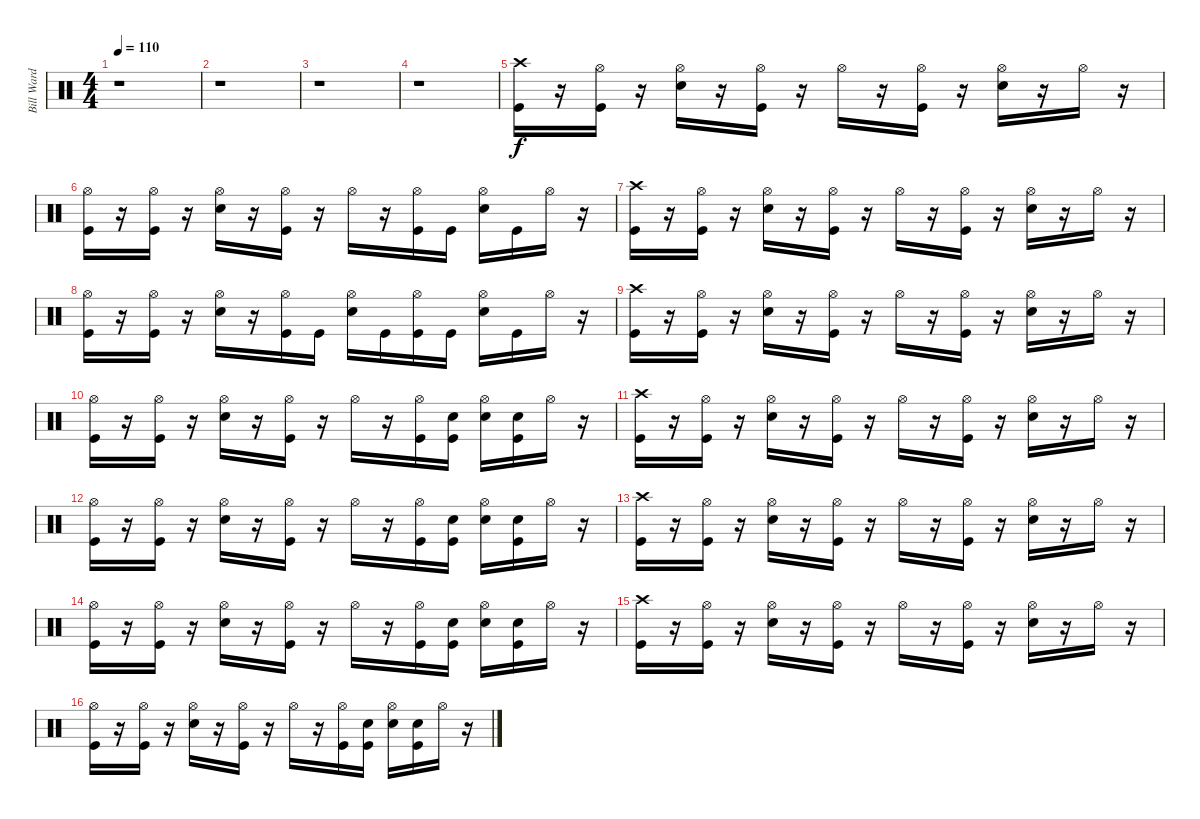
\track ("Bill Ward" "Bill Ward") {instrument percussion}
\staff {score}
\articulation defaults
\ts (4 4)
\tempo 110
\clef neutral
\ks c
r.1{dy f} |
r.1 |
r.1 |
r.1 |
("Crash high (hit)" "Kick (hit)").16 r.16 ("Kick (hit)" "Hi-Hat (open)").16 r.16 ("Snare (hit) 2" "Hi-Hat (open)").16 r.16 ("Kick (hit)" "Hi-Hat (open)").16 r.16 "Hi-Hat (open)".16 r.16 ("Kick (hit)" "Hi-Hat (open)").16 r.16 ("Hi-Hat (open)" "Snare (hit) 2").16 r.16 "Hi-Hat (open)".16 r.16 |
("Kick (hit)" "Hi-Hat (open)").16 r.16 ("Kick (hit)" "Hi-Hat (open)").16 r.16 ("Snare (hit) 2" "Hi-Hat (open)").16 r.16 ("Kick (hit)" "Hi-Hat (open)").16 r.16 "Hi-Hat (open)".16 r.16 ("Kick (hit)" "Hi-Hat (open)").16 "Kick (hit)".16 ("Hi-Hat (open)" "Snare (hit) 2").16 "Kick (hit)".16 "Hi-Hat (open)".16 r.16 |
("Kick (hit)" "Crash high (hit)").16 r.16 ("Kick (hit)" "Hi-Hat (open)").16 r.16 ("Snare (hit) 2" "Hi-Hat (open)").16 r.16 ("Kick (hit)" "Hi-Hat (open)").16 r.16 "Hi-Hat (open)".16 r.16 ("Kick (hit)" "Hi-Hat (open)").16 r.16 ("Hi-Hat (open)" "Snare (hit) 2").16 r.16 "Hi-Hat (open)".16 r.16 |
("Kick (hit)" "Hi-Hat (open)").16 r.16 ("Kick (hit)" "Hi-Hat (open)").16 r.16 ("Snare (hit) 2" "Hi-Hat (open)").16 r.16 ("Kick (hit)" "Hi-Hat (open)").16 "Kick (hit)".16 ("Hi-Hat (open)" "Snare (hit) 2").16 "Kick (hit)".16 ("Kick (hit)" "Hi-Hat (open)").16 "Kick (hit)".16 ("Hi-Hat (open)" "Snare (hit) 2").16 "Kick (hit)".16 "Hi-Hat (open)".16 r.16 |
("Crash high (hit)" "Kick (hit)").16 r.16 ("Kick (hit)" "Hi-Hat (open)").16 r.16 ("Snare (hit) 2" "Hi-Hat (open)").16 r.16 ("Kick (hit)" "Hi-Hat (open)").16 r.16 "Hi-Hat (open)".16 r.16 ("Kick (hit)" "Hi-Hat (open)").16 r.16 ("Snare (hit) 2" "Hi-Hat (open)").16 r.16 "Hi-Hat (open)".16 r.16 |
("Kick (hit)" "Hi-Hat (open)").16 r.16 ("Kick (hit)" "Hi-Hat (open)").16 r.16 ("Snare (hit) 2" "Hi-Hat (open)").16 r.16 ("Kick (hit)" "Hi-Hat (open)").16 r.16 "Hi-Hat (open)".16 r.16 ("Kick (hit)" "Hi-Hat (open)").16 ("Snare (hit)" "Kick (hit)").16 ("Snare (hit) 2" "Hi-Hat (open)").16 ("Snare (hit)" "Kick (hit)").16 "Hi-Hat (open)".16 r.16 |
("Kick (hit)" "Crash high (hit)").16 r.16 ("Kick (hit)" "Hi-Hat (open)").16 r.16 ("Snare (hit) 2" "Hi-Hat (open)").16 r.16 ("Kick (hit)" "Hi-Hat (open)").16 r.16 "Hi-Hat (open)".16 r.16 ("Kick (hit)" "Hi-Hat (open)").16 r.16 ("Snare (hit) 2" "Hi-Hat (open)").16 r.16 "Hi-Hat (open)".16 r.16 |
("Kick (hit)" "Hi-Hat (open)").16 r.16 ("Kick (hit)" "Hi-Hat (open)").16 r.16 ("Snare (hit) 2" "Hi-Hat (open)").16 r.16 ("Kick (hit)" "Hi-Hat (open)").16 r.16 "Hi-Hat (open)".16 r.16 ("Kick (hit)" "Hi-Hat (open)").16 ("Snare (hit)" "Kick (hit)").16 ("Snare (hit) 2" "Hi-Hat (open)").16 ("Snare (hit)" "Kick (hit)").16 "Hi-Hat (open)".16 r.16 |
("Crash high (hit)" "Kick (hit)").16 r.16 ("Kick (hit)" "Hi-Hat (open)").16 r.16 ("Snare (hit) 2" "Hi-Hat (open)").16 r.16 ("Kick (hit)" "Hi-Hat (open)").16 r.16 "Hi-Hat (open)".16 r.16 ("Kick (hit)" "Hi-Hat (open)").16 r.16 ("Snare (hit) 2" "Hi-Hat (open)").16 r.16 "Hi-Hat (open)".16 r.16 |
("Kick (hit)" "Hi-Hat (open)").16 r.16 ("Kick (hit)" "Hi-Hat (open)").16 r.16 ("Snare (hit) 2" "Hi-Hat (open)").16 r.16 ("Kick (hit)" "Hi-Hat (open)").16 r.16 "Hi-Hat (open)".16 r.16 ("Kick (hit)" "Hi-Hat (open)").16 ("Snare (hit)" "Kick (hit)").16 ("Snare (hit) 2" "Hi-Hat (open)").16 ("Snare (hit)" "Kick (hit)").16 "Hi-Hat (open)".16 r.16 |
("Kick (hit)" "Crash high (hit)").16 r.16 ("Kick (hit)" "Hi-Hat (open)").16 r.16 ("Snare (hit) 2" "Hi-Hat (open)").16 r.16 ("Kick (hit)" "Hi-Hat (open)").16 r.16 "Hi-Hat (open)".16 r.16 ("Kick (hit)" "Hi-Hat (open)").16 r.16 ("Snare (hit) 2" "Hi-Hat (open)").16 r.16 "Hi-Hat (open)".16 r.16 |
("Kick (hit)" "Hi-Hat (open)").16 r.16 ("Kick (hit)" "Hi-Hat (open)").16 r.16 ("Snare (hit) 2" "Hi-Hat (open)").16 r.16 ("Kick (hit)" "Hi-Hat (open)").16 r.16 "Hi-Hat (open)".16 r.16 ("Kick (hit)" "Hi-Hat (open)").16 ("Snare (hit)" "Kick (hit)").16 ("Snare (hit) 2" "Hi-Hat (open)").16 ("Snare (hit)" "Kick (hit)").16 "Hi-Hat (open)".16 r.16
